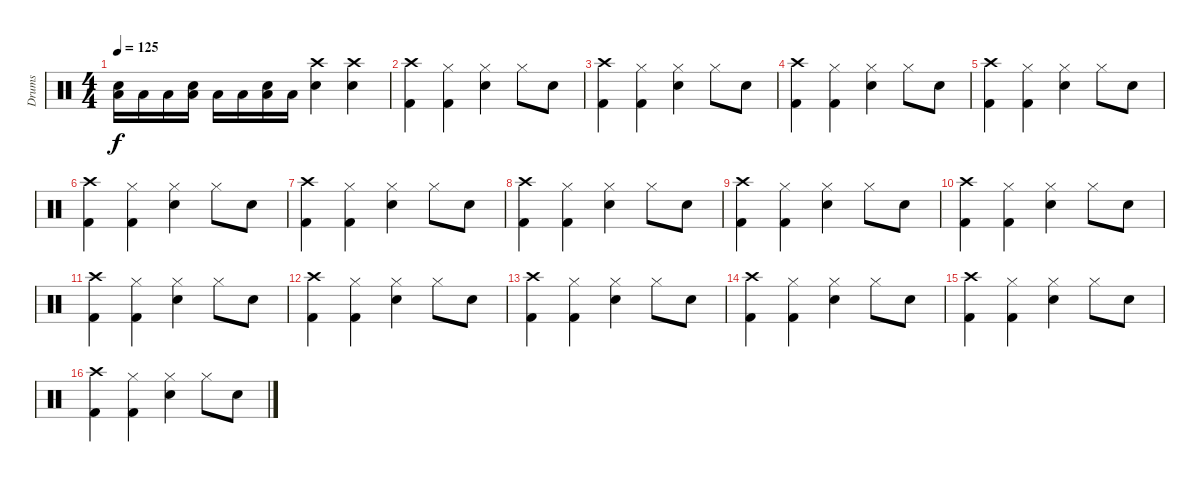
\track ("Drums" "Drums") {instrument percussion}
\staff {score}
\articulation defaults
\ts (4 4)
\tempo 125
\clef neutral
\ks c
("Low Floor Tom (hit)" "Electric Snare (hit)").16{dy f} "Low Floor Tom (hit)".16 "Low Floor Tom (hit)".16 ("Low Floor Tom (hit)" "Electric Snare (hit)").16 "Low Floor Tom (hit)".16 "Low Floor Tom (hit)".16 ("Low Floor Tom (hit)" "Electric Snare (hit)").16 "Low Floor Tom (hit)".16 ("Crash high (hit)" "Electric Snare (hit)").4 ("Crash high (hit)" "Electric Snare (hit)").4 |
("Kick (hit) 2" "Crash high (hit)").4 ("Kick (hit) 2" "Hi-Hat (closed)").4 ("Electric Snare (hit)" "Hi-Hat (closed)").4 "Hi-Hat (closed)".8 "Electric Snare (hit)".8 |
("Kick (hit) 2" "Crash high (hit)").4 ("Kick (hit) 2" "Hi-Hat (closed)").4 ("Electric Snare (hit)" "Hi-Hat (closed)").4 "Hi-Hat (closed)".8 "Electric Snare (hit)".8 |
("Kick (hit) 2" "Crash high (hit)").4 ("Kick (hit) 2" "Hi-Hat (closed)").4 ("Electric Snare (hit)" "Hi-Hat (closed)").4 "Hi-Hat (closed)".8 "Electric Snare (hit)".8 |
("Kick (hit) 2" "Crash high (hit)").4 ("Kick (hit) 2" "Hi-Hat (closed)").4 ("Electric Snare (hit)" "Hi-Hat (closed)").4 "Hi-Hat (closed)".8 "Electric Snare (hit)".8 |
("Kick (hit) 2" "Crash high (hit)").4 ("Kick (hit) 2" "Hi-Hat (closed)").4 ("Electric Snare (hit)" "Hi-Hat (closed)").4 "Hi-Hat (closed)".8 "Electric Snare (hit)".8 |
("Kick (hit) 2" "Crash high (hit)").4 ("Kick (hit) 2" "Hi-Hat (closed)").4 ("Electric Snare (hit)" "Hi-Hat (closed)").4 "Hi-Hat (closed)".8 "Electric Snare (hit)".8 |
("Kick (hit) 2" "Crash high (hit)").4 ("Kick (hit) 2" "Hi-Hat (closed)").4 ("Electric Snare (hit)" "Hi-Hat (closed)").4 "Hi-Hat (closed)".8 "Electric Snare (hit)".8 |
("Kick (hit) 2" "Crash high (hit)").4 ("Kick (hit) 2" "Hi-Hat (closed)").4 ("Electric Snare (hit)" "Hi-Hat (closed)").4 "Hi-Hat (closed)".8 "Electric Snare (hit)".8 |
("Kick (hit) 2" "Crash high (hit)").4 ("Kick (hit) 2" "Hi-Hat (closed)").4 ("Electric Snare (hit)" "Hi-Hat (closed)").4 "Hi-Hat (closed)".8 "Electric Snare (hit)".8 |
("Kick (hit) 2" "Crash high (hit)").4 ("Kick (hit) 2" "Hi-Hat (closed)").4 ("Electric Snare (hit)" "Hi-Hat (closed)").4 "Hi-Hat (closed)".8 "Electric Snare (hit)".8 |
("Kick (hit) 2" "Crash high (hit)").4 ("Kick (hit) 2" "Hi-Hat (closed)").4 ("Electric Snare (hit)" "Hi-Hat (closed)").4 "Hi-Hat (closed)".8 "Electric Snare (hit)".8 |
("Kick (hit) 2" "Crash high (hit)").4 ("Kick (hit) 2" "Hi-Hat (closed)").4 ("Electric Snare (hit)" "Hi-Hat (closed)").4 "Hi-Hat (closed)".8 "Electric Snare (hit)".8 |
("Kick (hit) 2" "Crash high (hit)").4 ("Kick (hit) 2" "Hi-Hat (closed)").4 ("Electric Snare (hit)" "Hi-Hat (closed)").4 "Hi-Hat (closed)".8 "Electric Snare (hit)".8 |
("Kick (hit) 2" "Crash high (hit)").4 ("Kick (hit) 2" "Hi-Hat (closed)").4 ("Electric Snare (hit)" "Hi-Hat (closed)").4 "Hi-Hat (closed)".8 "Electric Snare (hit)".8 |
("Kick (hit) 2" "Crash high (hit)").4 ("Kick (hit) 2" "Hi-Hat (closed)").4 ("Electric Snare (hit)" "Hi-Hat (closed)").4 "Hi-Hat (closed)".8 "Electric Snare (hit)".8
